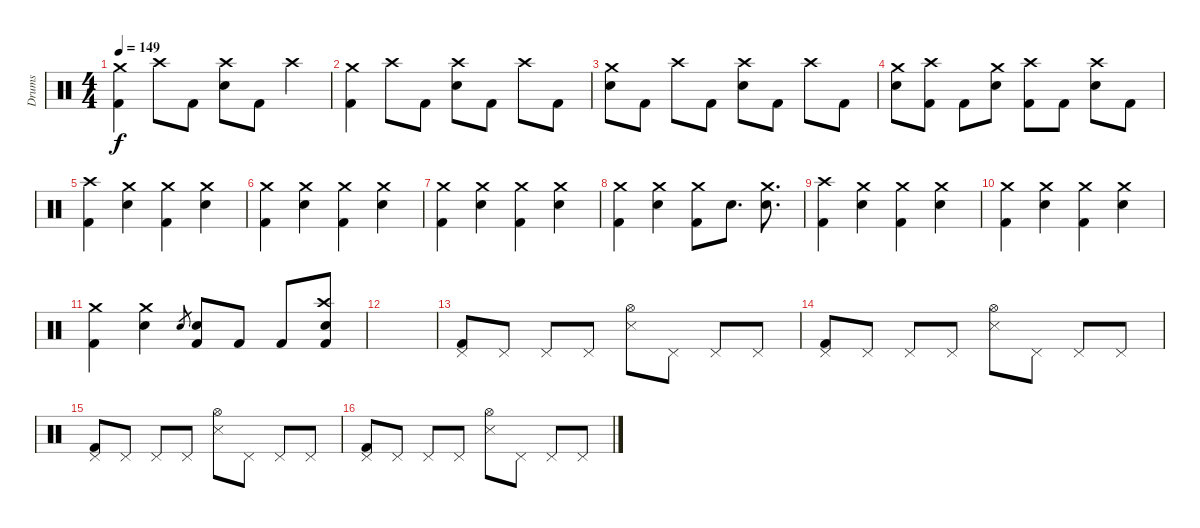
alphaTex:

\track ("Drums" "Drums") {instrument percussion}
\staff {score}
\articulation defaults
\ts (4 4)
\tempo 149
\clef neutral
\ks c
("Crash medium (hit)" "Kick (hit) 2").4{dy f} "Crash high (hit)".8 "Kick (hit) 2".8 ("Crash high (hit)" "Electric Snare (hit)").8 "Kick (hit) 2".8 "Crash high (hit)".4 |
("Crash medium (hit)" "Kick (hit) 2").4 "Crash high (hit)".8 "Kick (hit) 2".8 ("Crash high (hit)" "Electric Snare (hit)").8 "Kick (hit) 2".8 "Crash high (hit)".8 "Kick (hit) 2".8 |
("Crash medium (hit)" "Electric Snare (hit)").8 "Kick (hit) 2".8 "Crash high (hit)".8 "Kick (hit) 2".8 ("Crash high (hit)" "Electric Snare (hit)").8 "Kick (hit) 2".8 "Crash high (hit)".8 "Kick (hit) 2".8 |
("Crash medium (hit)" "Electric Snare (hit)").8 ("Crash high (hit)" "Kick (hit) 2").8 "Kick (hit) 2".8 ("Crash medium (hit)" "Electric Snare (hit)").8 ("Crash high (hit)" "Kick (hit) 2").8 "Kick (hit) 2".8 ("Crash high (hit)" "Electric Snare (hit)").8 "Kick (hit) 2".8 |
("Crash high (hit)" "Kick (hit) 2").4 ("Crash medium (hit)" "Electric Snare (hit)").4 ("Crash medium (hit)" "Kick (hit) 2").4 ("Crash medium (hit)" "Electric Snare (hit)").4 |
("Crash medium (hit)" "Kick (hit) 2").4 ("Crash medium (hit)" "Electric Snare (hit)").4 ("Crash medium (hit)" "Kick (hit) 2").4 ("Crash medium (hit)" "Electric Snare (hit)").4 |
("Crash medium (hit)" "Kick (hit) 2").4 ("Crash medium (hit)" "Electric Snare (hit)").4 ("Crash medium (hit)" "Kick (hit) 2").4 ("Crash medium (hit)" "Electric Snare (hit)").4 |
("Crash medium (hit)" "Kick (hit) 2").4 ("Crash medium (hit)" "Electric Snare (hit)").4 ("Crash medium (hit)" "Kick (hit) 2").8 "Electric Snare (hit)".8{d} ("Crash medium (hit)" "Electric Snare (hit)").8{d} |
("Crash high (hit)" "Kick (hit) 2").4 ("Crash medium (hit)" "Electric Snare (hit)").4 ("Crash medium (hit)" "Kick (hit) 2").4 ("Crash medium (hit)" "Electric Snare (hit)").4 |
("Crash medium (hit)" "Kick (hit) 2").4 ("Crash medium (hit)" "Electric Snare (hit)").4 ("Crash medium (hit)" "Kick (hit) 2").4 ("Crash medium (hit)" "Electric Snare (hit)").4 |
("Crash medium (hit)" "Kick (hit) 2").4 ("Crash medium (hit)" "Electric Snare (hit)").4 "Electric Snare (hit)".8{gr} ("Electric Snare (hit)" "Kick (hit) 2").8 "Kick (hit) 2".8 "Kick (hit) 2".8 ("Crash high (hit)" "Electric Snare (hit)" "Kick (hit) 2").8 |
|
("Pedal Hi-Hat (hit)" "Kick (hit) 2").8 "Pedal Hi-Hat (hit)".8 "Pedal Hi-Hat (hit)".8 "Pedal Hi-Hat (hit)".8 ("Hi-Hat (open)" "Snare (side stick) 3").8 "Pedal Hi-Hat (hit)".8 "Pedal Hi-Hat (hit)".8 "Pedal Hi-Hat (hit)".8 |
("Pedal Hi-Hat (hit)" "Kick (hit) 2").8 "Pedal Hi-Hat (hit)".8 "Pedal Hi-Hat (hit)".8 "Pedal Hi-Hat (hit)".8 ("Hi-Hat (open)" "Snare (side stick) 3").8 "Pedal Hi-Hat (hit)".8 "Pedal Hi-Hat (hit)".8 "Pedal Hi-Hat (hit)".8 |
("Pedal Hi-Hat (hit)" "Kick (hit) 2").8 "Pedal Hi-Hat (hit)".8 "Pedal Hi-Hat (hit)".8 "Pedal Hi-Hat (hit)".8 ("Hi-Hat (open)" "Snare (side stick) 3").8 "Pedal Hi-Hat (hit)".8 "Pedal Hi-Hat (hit)".8 "Pedal Hi-Hat (hit)".8 |
("Pedal Hi-Hat (hit)" "Kick (hit) 2").8 "Pedal Hi-Hat (hit)".8 "Pedal Hi-Hat (hit)".8 "Pedal Hi-Hat (hit)".8 ("Hi-Hat (open)" "Snare (side stick) 3").8 "Pedal Hi-Hat (hit)".8 "Pedal Hi-Hat (hit)".8 "Pedal Hi-Hat (hit)".8
